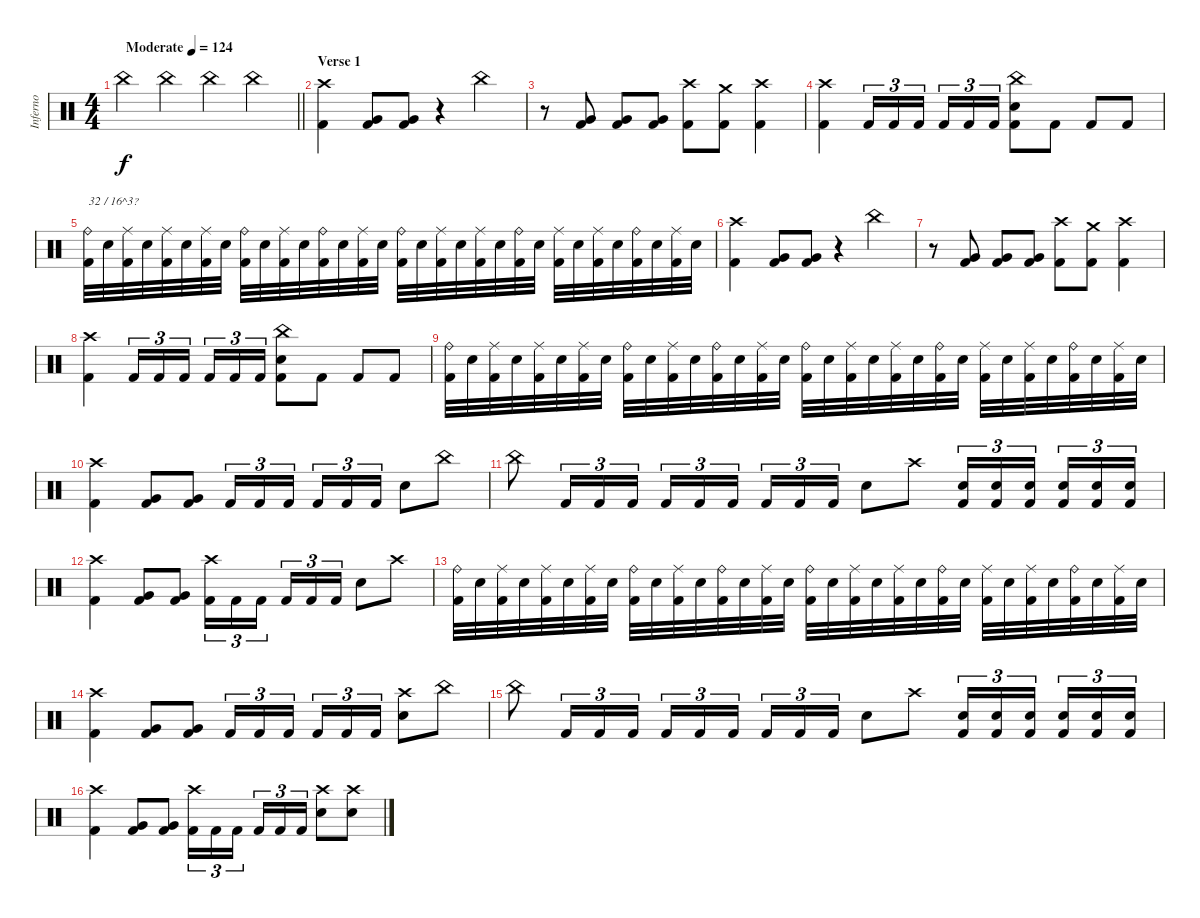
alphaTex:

\track ("Inferno" "Inferno") {instrument percussion}
\staff {score}
\articulation defaults
\ts (4 4)
\tempo (124 "Moderate")
\clef neutral
\barLineRight lightlight
\ks c "China (hit)".4{dy f} "China (hit)".4 "China (hit)".4 "China (hit)".4
|
\section ("" "Verse 1")
("Crash high (hit)" "Kick (hit) 2").4 ("Very Low Tom (hit)" "Kick (hit) 2").8 ("Very Low Tom (hit)" "Kick (hit) 2").8 r.4 "China (hit)".4 |
r.8 ("Very Low Tom (hit)" "Kick (hit) 2").8 ("Very Low Tom (hit)" "Kick (hit) 2").8 ("Very Low Tom (hit)" "Kick (hit) 2").8 ("Crash high (hit)" "Kick (hit) 2").8 ("Crash medium (hit)" "Kick (hit) 2").8 ("Crash high (hit)" "Kick (hit) 2").4 |
("Crash high (hit)" "Kick (hit) 2").4 "Kick (hit) 2".16{tu (3 2)} "Kick (hit) 2".16{tu (3 2)} "Kick (hit) 2".16{tu (3 2) beam splitsecondary} "Kick (hit) 2".16{tu (3 2)} "Kick (hit) 2".16{tu (3 2)} "Kick (hit) 2".16{tu (3 2)} ("China (hit)" "Electric Snare (hit)" "Kick (hit) 2").8 "Kick (hit) 2".8 "Kick (hit) 2".8 "Kick (hit) 2".8 |
("Ride (bell)" "Kick (hit) 2").32{txt "32 / 16^3?"} "Electric Snare (hit)".32 ("Ride (middle)" "Kick (hit) 2").32 "Electric Snare (hit)".32 ("Ride (middle)" "Kick (hit) 2").32 "Electric Snare (hit)".32 ("Ride (middle)" "Kick (hit) 2").32 "Electric Snare (hit)".32 ("Ride (bell)" "Kick (hit) 2").32 "Electric Snare (hit)".32 ("Ride (middle)" "Kick (hit) 2").32 "Electric Snare (hit)".32 ("Ride (bell)" "Kick (hit) 2").32 "Electric Snare (hit)".32 ("Ride (middle)" "Kick (hit) 2").32 "Electric Snare (hit)".32 ("Ride (bell)" "Kick (hit) 2").32 "Electric Snare (hit)".32 ("Ride (middle)" "Kick (hit) 2").32 "Electric Snare (hit)".32 ("Ride (middle)" "Kick (hit) 2").32 "Electric Snare (hit)".32 ("Ride (bell)" "Kick (hit) 2").32 "Electric Snare (hit)".32 ("Ride (middle)" "Kick (hit) 2").32 "Electric Snare (hit)".32 ("Ride (middle)" "Kick (hit) 2").32 "Electric Snare (hit)".32 ("Ride (bell)" "Kick (hit) 2").32 "Electric Snare (hit)".32 ("Ride (middle)" "Kick (hit) 2").32 "Electric Snare (hit)".32 |
("Crash high (hit)" "Kick (hit) 2").4 ("Very Low Tom (hit)" "Kick (hit) 2").8 ("Very Low Tom (hit)" "Kick (hit) 2").8 r.4 "China (hit)".4 |
r.8 ("Very Low Tom (hit)" "Kick (hit) 2").8 ("Very Low Tom (hit)" "Kick (hit) 2").8 ("Very Low Tom (hit)" "Kick (hit) 2").8 ("Crash high (hit)" "Kick (hit) 2").8 ("Crash medium (hit)" "Kick (hit) 2").8 ("Crash high (hit)" "Kick (hit) 2").4 |
("Crash high (hit)" "Kick (hit) 2").4 "Kick (hit) 2".16{tu (3 2)} "Kick (hit) 2".16{tu (3 2)} "Kick (hit) 2".16{tu (3 2) beam splitsecondary} "Kick (hit) 2".16{tu (3 2)} "Kick (hit) 2".16{tu (3 2)} "Kick (hit) 2".16{tu (3 2)} ("China (hit)" "Electric Snare (hit)" "Kick (hit) 2").8 "Kick (hit) 2".8 "Kick (hit) 2".8 "Kick (hit) 2".8 |
("Ride (bell)" "Kick (hit) 2").32 "Electric Snare (hit)".32 ("Ride (middle)" "Kick (hit) 2").32 "Electric Snare (hit)".32 ("Ride (middle)" "Kick (hit) 2").32 "Electric Snare (hit)".32 ("Ride (middle)" "Kick (hit) 2").32 "Electric Snare (hit)".32 ("Ride (bell)" "Kick (hit) 2").32 "Electric Snare (hit)".32 ("Ride (middle)" "Kick (hit) 2").32 "Electric Snare (hit)".32 ("Ride (bell)" "Kick (hit) 2").32 "Electric Snare (hit)".32 ("Ride (middle)" "Kick (hit) 2").32 "Electric Snare (hit)".32 ("Ride (bell)" "Kick (hit) 2").32 "Electric Snare (hit)".32 ("Ride (middle)" "Kick (hit) 2").32 "Electric Snare (hit)".32 ("Ride (middle)" "Kick (hit) 2").32 "Electric Snare (hit)".32 ("Ride (bell)" "Kick (hit) 2").32 "Electric Snare (hit)".32 ("Ride (middle)" "Kick (hit) 2").32 "Electric Snare (hit)".32 ("Ride (middle)" "Kick (hit) 2").32 "Electric Snare (hit)".32 ("Ride (bell)" "Kick (hit) 2").32 "Electric Snare (hit)".32 ("Ride (middle)" "Kick (hit) 2").32 "Electric Snare (hit)".32 |
("Crash high (hit)" "Kick (hit) 2").4 ("Very Low Tom (hit)" "Kick (hit) 2").8 ("Very Low Tom (hit)" "Kick (hit) 2").8 "Kick (hit) 2".16{tu (3 2)} "Kick (hit) 2".16{tu (3 2)} "Kick (hit) 2".16{tu (3 2) beam splitsecondary} "Kick (hit) 2".16{tu (3 2)} "Kick (hit) 2".16{tu (3 2)} "Kick (hit) 2".16{tu (3 2)} "Electric Snare (hit)".8 "China (hit)".8 |
"China (hit)".8 "Kick (hit) 2".16{tu (3 2)} "Kick (hit) 2".16{tu (3 2)} "Kick (hit) 2".16{tu (3 2)} "Kick (hit) 2".16{tu (3 2)} "Kick (hit) 2".16{tu (3 2)} "Kick (hit) 2".16{tu (3 2) beam splitsecondary} "Kick (hit) 2".16{tu (3 2)} "Kick (hit) 2".16{tu (3 2)} "Kick (hit) 2".16{tu (3 2)} "Electric Snare (hit)".8 "Crash high (hit)".8 ("Electric Snare (hit)" "Kick (hit) 2").16{tu (3 2)} ("Electric Snare (hit)" "Kick (hit) 2").16{tu (3 2)} ("Electric Snare (hit)" "Kick (hit) 2").16{tu (3 2) beam splitsecondary} ("Electric Snare (hit)" "Kick (hit) 2").16{tu (3 2)} ("Electric Snare (hit)" "Kick (hit) 2").16{tu (3 2)} ("Electric Snare (hit)" "Kick (hit) 2").16{tu (3 2)} |
("Crash high (hit)" "Kick (hit) 2").4 ("Very Low Tom (hit)" "Kick (hit) 2").8 ("Very Low Tom (hit)" "Kick (hit) 2").8 ("Crash high (hit)" "Kick (hit) 2").16{tu (3 2)} "Kick (hit) 2".16{tu (3 2)} "Kick (hit) 2".16{tu (3 2) beam splitsecondary} "Kick (hit) 2".16{tu (3 2)} "Kick (hit) 2".16{tu (3 2)} "Kick (hit) 2".16{tu (3 2)} "Electric Snare (hit)".8 "Crash high (hit)".8 |
("Ride (bell)" "Kick (hit) 2").32 "Electric Snare (hit)".32 ("Ride (middle)" "Kick (hit) 2").32 "Electric Snare (hit)".32 ("Ride (middle)" "Kick (hit) 2").32 "Electric Snare (hit)".32 ("Ride (middle)" "Kick (hit) 2").32 "Electric Snare (hit)".32 ("Ride (bell)" "Kick (hit) 2").32 "Electric Snare (hit)".32 ("Ride (middle)" "Kick (hit) 2").32 "Electric Snare (hit)".32 ("Ride (bell)" "Kick (hit) 2").32 "Electric Snare (hit)".32 ("Ride (middle)" "Kick (hit) 2").32 "Electric Snare (hit)".32 ("Ride (bell)" "Kick (hit) 2").32 "Electric Snare (hit)".32 ("Ride (middle)" "Kick (hit) 2").32 "Electric Snare (hit)".32 ("Ride (middle)" "Kick (hit) 2").32 "Electric Snare (hit)".32 ("Ride (bell)" "Kick (hit) 2").32 "Electric Snare (hit)".32 ("Ride (middle)" "Kick (hit) 2").32 "Electric Snare (hit)".32 ("Ride (middle)" "Kick (hit) 2").32 "Electric Snare (hit)".32 ("Ride (bell)" "Kick (hit) 2").32 "Electric Snare (hit)".32 ("Ride (middle)" "Kick (hit) 2").32 "Electric Snare (hit)".32 |
("Crash high (hit)" "Kick (hit) 2").4 ("Very Low Tom (hit)" "Kick (hit) 2").8 ("Very Low Tom (hit)" "Kick (hit) 2").8 "Kick (hit) 2".16{tu (3 2)} "Kick (hit) 2".16{tu (3 2)} "Kick (hit) 2".16{tu (3 2) beam splitsecondary} "Kick (hit) 2".16{tu (3 2)} "Kick (hit) 2".16{tu (3 2)} "Kick (hit) 2".16{tu (3 2)} ("Crash high (hit)" "Electric Snare (hit)").8 "China (hit)".8 |
"China (hit)".8 "Kick (hit) 2".16{tu (3 2)} "Kick (hit) 2".16{tu (3 2)} "Kick (hit) 2".16{tu (3 2)} "Kick (hit) 2".16{tu (3 2)} "Kick (hit) 2".16{tu (3 2)} "Kick (hit) 2".16{tu (3 2) beam splitsecondary} "Kick (hit) 2".16{tu (3 2)} "Kick (hit) 2".16{tu (3 2)} "Kick (hit) 2".16{tu (3 2)} "Electric Snare (hit)".8 "Crash high (hit)".8 ("Electric Snare (hit)" "Kick (hit) 2").16{tu (3 2)} ("Electric Snare (hit)" "Kick (hit) 2").16{tu (3 2)} ("Electric Snare (hit)" "Kick (hit) 2").16{tu (3 2) beam splitsecondary} ("Electric Snare (hit)" "Kick (hit) 2").16{tu (3 2)} ("Electric Snare (hit)" "Kick (hit) 2").16{tu (3 2)} ("Electric Snare (hit)" "Kick (hit) 2").16{tu (3 2)} |
("Crash high (hit)" "Kick (hit) 2").4 ("Very Low Tom (hit)" "Kick (hit) 2").8 ("Very Low Tom (hit)" "Kick (hit) 2").8 ("Crash high (hit)" "Kick (hit) 2").16{tu (3 2)} "Kick (hit) 2".16{tu (3 2)} "Kick (hit) 2".16{tu (3 2) beam splitsecondary} "Kick (hit) 2".16{tu (3 2)} "Kick (hit) 2".16{tu (3 2)} "Kick (hit) 2".16{tu (3 2)} ("Crash high (hit)" "Electric Snare (hit)").8 ("Crash high (hit)" "Electric Snare (hit)").8
